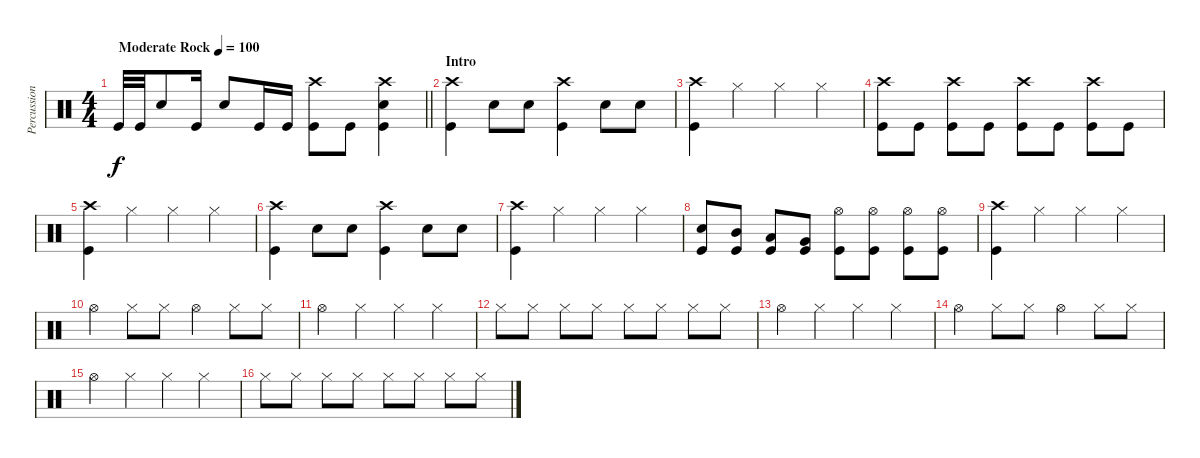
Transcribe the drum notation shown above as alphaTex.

\track ("Percussion" "Percussion") {instrument percussion}
\staff {score}
\articulation defaults
\ts (4 4)
\tempo (100 "Moderate Rock")
\clef neutral
\barLineRight lightlight
\ks c "Kick (hit)".32{dy f} "Kick (hit)".32 "Electric Snare (hit)".8 "Kick (hit)".16 "Electric Snare (hit)".8 "Kick (hit)".16 "Kick (hit)".16
("Crash high (hit)" "Kick (hit)").8 "Kick (hit)".8 ("Crash high (hit)" "Electric Snare (hit)" "Kick (hit)").4 |
\section ("" "Intro")
("Crash high (hit)" "Kick (hit)").4 "Electric Snare (hit)".8 "Electric Snare (hit)".8 ("Crash high (hit)" "Kick (hit)").4 "Electric Snare (hit)".8 "Electric Snare (hit)".8 |
("Crash high (hit)" "Kick (hit)").4 "Hi-Hat (closed)".4 "Hi-Hat (closed)".4 "Hi-Hat (closed)".4 |
("Crash high (hit)" "Kick (hit)").8 "Kick (hit)".8 ("Crash high (hit)" "Kick (hit)").8 "Kick (hit)".8 ("Crash high (hit)" "Kick (hit)").8 "Kick (hit)".8 ("Crash high (hit)" "Kick (hit)").8 "Kick (hit)".8 |
("Crash high (hit)" "Kick (hit)").4 "Hi-Hat (closed)".4 "Hi-Hat (closed)".4 "Hi-Hat (closed)".4 |
("Crash high (hit)" "Kick (hit)").4 "Electric Snare (hit)".8 "Electric Snare (hit)".8 ("Crash high (hit)" "Kick (hit)").4 "Electric Snare (hit)".8 "Electric Snare (hit)".8 |
("Crash high (hit)" "Kick (hit)").4 "Hi-Hat (closed)".4 "Hi-Hat (closed)".4 "Hi-Hat (closed)".4 |
("Electric Snare (hit)" "Kick (hit)").8 ("Mid Tom (hit)" "Kick (hit)").8 ("Low Tom (hit)" "Kick (hit)").8 ("Very Low Tom (hit)" "Kick (hit)").8 ("Hi-Hat (open)" "Kick (hit)").8 ("Hi-Hat (open)" "Kick (hit)").8 ("Hi-Hat (open)" "Kick (hit)").8 ("Hi-Hat (open)" "Kick (hit)").8 |
("Crash high (hit)" "Kick (hit)").4 "Hi-Hat (closed)".4 "Hi-Hat (closed)".4 "Hi-Hat (closed)".4 |
"Hi-Hat (open)".4 "Hi-Hat (closed)".8 "Hi-Hat (closed)".8 "Hi-Hat (open)".4 "Hi-Hat (closed)".8 "Hi-Hat (closed)".8 |
"Hi-Hat (open)".4 "Hi-Hat (closed)".4 "Hi-Hat (closed)".4 "Hi-Hat (closed)".4 |
"Hi-Hat (closed)".8 "Hi-Hat (closed)".8 "Hi-Hat (closed)".8 "Hi-Hat (closed)".8 "Hi-Hat (closed)".8 "Hi-Hat (closed)".8 "Hi-Hat (closed)".8 "Hi-Hat (closed)".8 |
"Hi-Hat (open)".4 "Hi-Hat (closed)".4 "Hi-Hat (closed)".4 "Hi-Hat (closed)".4 |
"Hi-Hat (open)".4 "Hi-Hat (closed)".8 "Hi-Hat (closed)".8 "Hi-Hat (open)".4 "Hi-Hat (closed)".8 "Hi-Hat (closed)".8 |
"Hi-Hat (open)".4 "Hi-Hat (closed)".4 "Hi-Hat (closed)".4 "Hi-Hat (closed)".4 |
"Hi-Hat (closed)".8 "Hi-Hat (closed)".8 "Hi-Hat (closed)".8 "Hi-Hat (closed)".8 "Hi-Hat (closed)".8 "Hi-Hat (closed)".8 "Hi-Hat (closed)".8 "Hi-Hat (closed)".8
